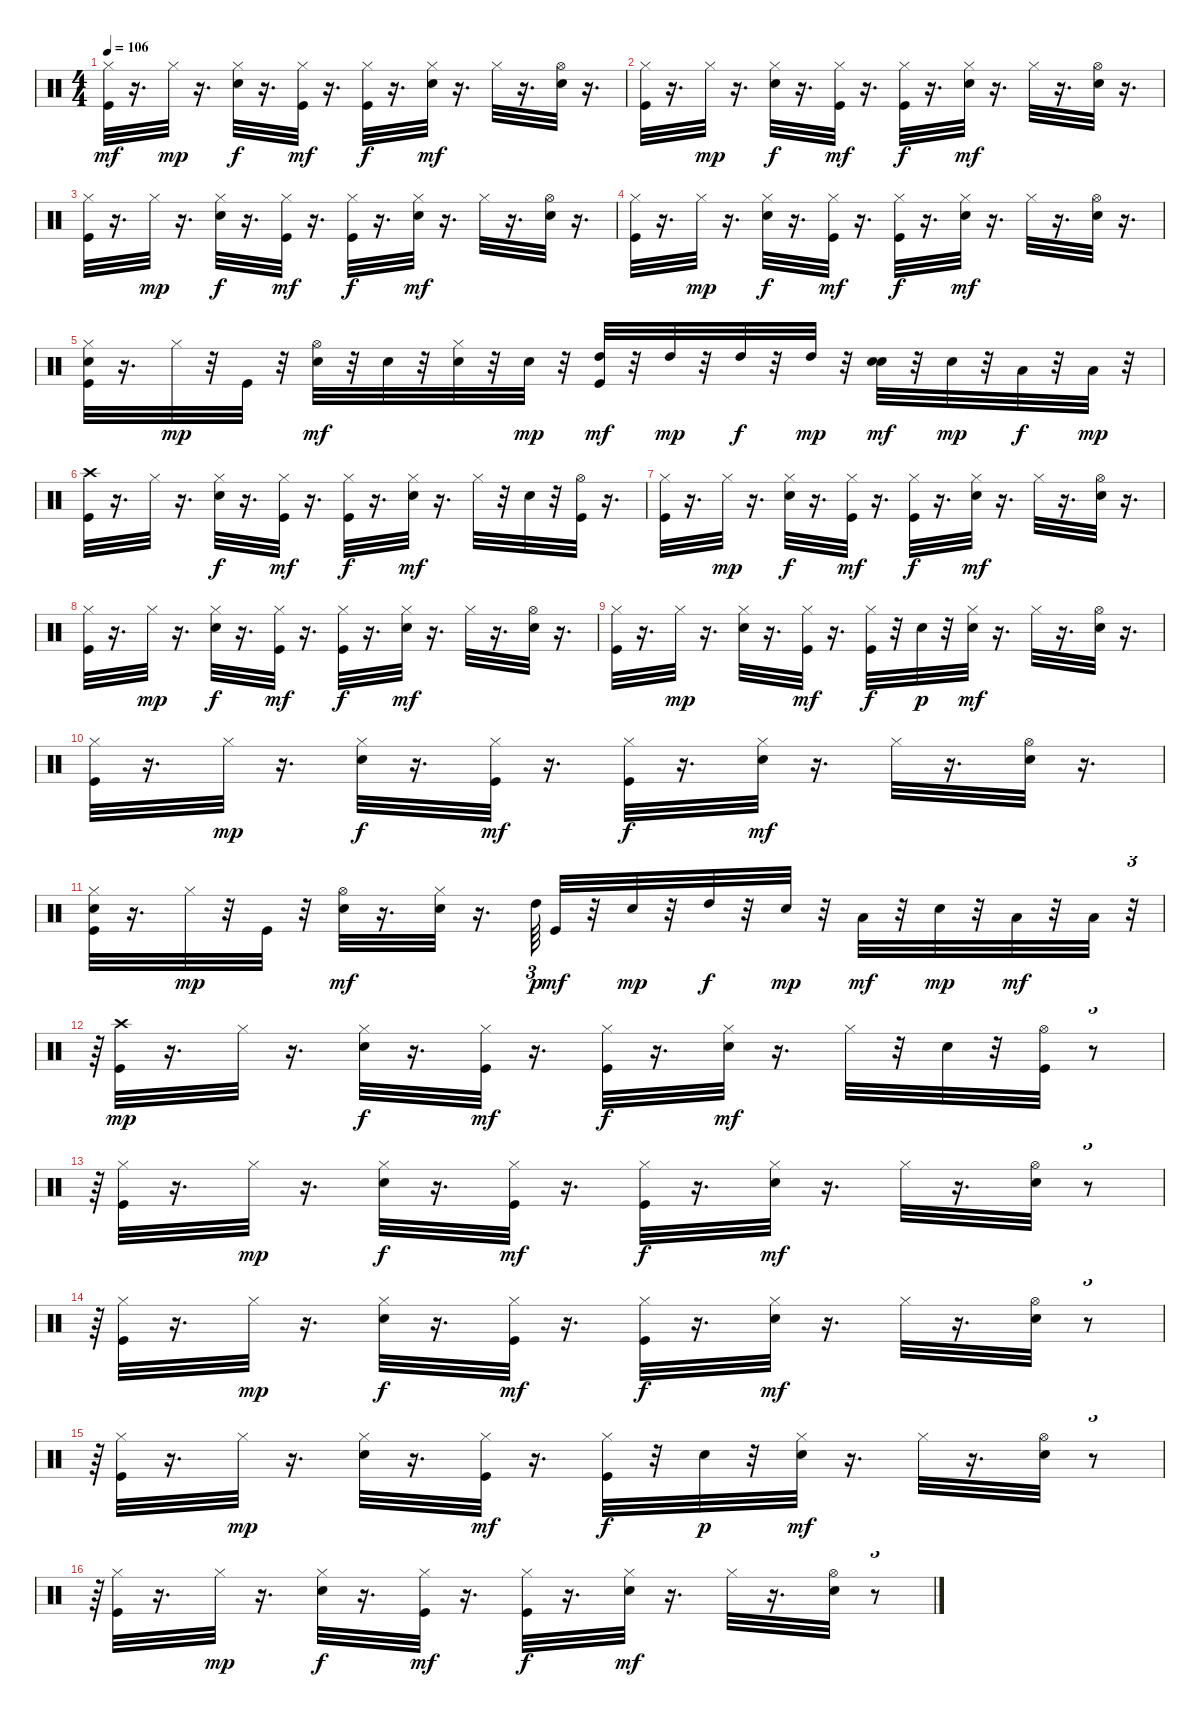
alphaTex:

\track "" {instrument percussion}
\staff {score}
\articulation defaults
\ts (4 4)
\tempo 106
\clef neutral
\ks c
("Kick (hit)" "Hi-Hat (closed)").32{dy mf} r.16{d} "Hi-Hat (closed)".32{dy mp} r.16{d} ("Snare (hit) 2" "Hi-Hat (closed)").32{dy f} r.16{d} ("Kick (hit)" "Hi-Hat (closed)").32{dy mf} r.16{d} ("Kick (hit)" "Hi-Hat (closed)").32{dy f} r.16{d} ("Snare (hit) 2" "Hi-Hat (closed)").32{dy mf} r.16{d} "Hi-Hat (closed)".32 r.16{d} ("Snare (hit) 2" "Hi-Hat (open)").32 r.16{d} |
("Kick (hit)" "Hi-Hat (closed)").32 r.16{d} "Hi-Hat (closed)".32{dy mp} r.16{d} ("Snare (hit) 2" "Hi-Hat (closed)").32{dy f} r.16{d} ("Kick (hit)" "Hi-Hat (closed)").32{dy mf} r.16{d} ("Kick (hit)" "Hi-Hat (closed)").32{dy f} r.16{d} ("Snare (hit) 2" "Hi-Hat (closed)").32{dy mf} r.16{d} "Hi-Hat (closed)".32 r.16{d} ("Snare (hit) 2" "Hi-Hat (open)").32 r.16{d} |
("Kick (hit)" "Hi-Hat (closed)").32 r.16{d} "Hi-Hat (closed)".32{dy mp} r.16{d} ("Snare (hit) 2" "Hi-Hat (closed)").32{dy f} r.16{d} ("Kick (hit)" "Hi-Hat (closed)").32{dy mf} r.16{d} ("Kick (hit)" "Hi-Hat (closed)").32{dy f} r.16{d} ("Snare (hit) 2" "Hi-Hat (closed)").32{dy mf} r.16{d} "Hi-Hat (closed)".32 r.16{d} ("Snare (hit) 2" "Hi-Hat (open)").32 r.16{d} |
("Kick (hit)" "Hi-Hat (closed)").32 r.16{d} "Hi-Hat (closed)".32{dy mp} r.16{d} ("Snare (hit) 2" "Hi-Hat (closed)").32{dy f} r.16{d} ("Kick (hit)" "Hi-Hat (closed)").32{dy mf} r.16{d} ("Kick (hit)" "Hi-Hat (closed)").32{dy f} r.16{d} ("Snare (hit) 2" "Hi-Hat (closed)").32{dy mf} r.16{d} "Hi-Hat (closed)".32 r.16{d} ("Snare (hit) 2" "Hi-Hat (open)").32 r.16{d} |
("Kick (hit)" "Snare (hit) 2" "Hi-Hat (closed)").32 r.16{d} "Hi-Hat (closed)".32{dy mp} r.32 "Kick (hit)".32 r.32 ("Snare (hit) 2" "Hi-Hat (open)").32{dy mf} r.32 "Snare (hit) 2".32 r.32 ("Snare (hit) 2" "Hi-Hat (closed)").32 r.32 "Snare (hit) 2".32{dy mp} r.32 ("Kick (hit)" "High Tom (hit)").32{dy mf} r.32 "High Tom (hit)".32{dy mp} r.32 "High Tom (hit)".32{dy f} r.32 "High Tom (hit)".32{dy mp} r.32 ("Snare (hit) 2" "Snare (hit) 2").32{dy mf} r.32 "Snare (hit) 2".32{dy mp} r.32 "Low Tom (hit)".32{dy f} r.32 "Low Tom (hit)".32{dy mp} r.32 |
("Kick (hit)" "Crash high (hit)").32 r.16{d} "Hi-Hat (closed)".32 r.16{d} ("Snare (hit) 2" "Hi-Hat (closed)").32{dy f} r.16{d} ("Kick (hit)" "Hi-Hat (closed)").32{dy mf} r.16{d} ("Kick (hit)" "Hi-Hat (closed)").32{dy f} r.16{d} ("Snare (hit) 2" "Hi-Hat (closed)").32{dy mf} r.16{d} "Hi-Hat (closed)".32 r.32 "Snare (hit) 2".32 r.32 ("Kick (hit)" "Hi-Hat (open)").32 r.16{d} |
("Kick (hit)" "Hi-Hat (closed)").32 r.16{d} "Hi-Hat (closed)".32{dy mp} r.16{d} ("Snare (hit) 2" "Hi-Hat (closed)").32{dy f} r.16{d} ("Kick (hit)" "Hi-Hat (closed)").32{dy mf} r.16{d} ("Kick (hit)" "Hi-Hat (closed)").32{dy f} r.16{d} ("Snare (hit) 2" "Hi-Hat (closed)").32{dy mf} r.16{d} "Hi-Hat (closed)".32 r.16{d} ("Snare (hit) 2" "Hi-Hat (open)").32 r.16{d} |
("Kick (hit)" "Hi-Hat (closed)").32 r.16{d} "Hi-Hat (closed)".32{dy mp} r.16{d} ("Snare (hit) 2" "Hi-Hat (closed)").32{dy f} r.16{d} ("Kick (hit)" "Hi-Hat (closed)").32{dy mf} r.16{d} ("Kick (hit)" "Hi-Hat (closed)").32{dy f} r.16{d} ("Snare (hit) 2" "Hi-Hat (closed)").32{dy mf} r.16{d} "Hi-Hat (closed)".32 r.16{d} ("Snare (hit) 2" "Hi-Hat (open)").32 r.16{d} |
("Kick (hit)" "Hi-Hat (closed)").32 r.16{d} "Hi-Hat (closed)".32{dy mp} r.16{d} ("Snare (hit) 2" "Hi-Hat (closed)").32 r.16{d} ("Kick (hit)" "Hi-Hat (closed)").32{dy mf} r.16{d} ("Kick (hit)" "Hi-Hat (closed)").32{dy f} r.32 "Snare (hit) 2".32{dy p} r.32 ("Snare (hit) 2" "Hi-Hat (closed)").32{dy mf} r.16{d} "Hi-Hat (closed)".32 r.16{d} ("Snare (hit) 2" "Hi-Hat (open)").32 r.16{d} |
("Kick (hit)" "Hi-Hat (closed)").32 r.16{d} "Hi-Hat (closed)".32{dy mp} r.16{d} ("Snare (hit) 2" "Hi-Hat (closed)").32{dy f} r.16{d} ("Kick (hit)" "Hi-Hat (closed)").32{dy mf} r.16{d} ("Kick (hit)" "Hi-Hat (closed)").32{dy f} r.16{d} ("Snare (hit) 2" "Hi-Hat (closed)").32{dy mf} r.16{d} "Hi-Hat (closed)".32 r.16{d} ("Snare (hit) 2" "Hi-Hat (open)").32 r.16{d} |
("Kick (hit)" "Snare (hit) 2" "Hi-Hat (closed)").32 r.16{d} "Hi-Hat (closed)".32{dy mp} r.32 "Kick (hit)".32 r.32 ("Snare (hit) 2" "Hi-Hat (open)").32{dy mf} r.16{d} ("Snare (hit) 2" "Hi-Hat (closed)").32 r.16{d} "High Tom (hit)".64{tu (3 2) dy p} "Kick (hit)".32{dy mf} r.32 "Snare (hit) 2".32{dy mp} r.32 "High Tom (hit)".32{dy f} r.32 "Snare (hit) 2".32{dy mp} r.32 "Low Tom (hit)".32{dy mf} r.32 "Snare (hit) 2".32{dy mp} r.32 "Low Floor Tom (hit)".32{dy mf} r.32 "Low Floor Tom (hit)".32 r.32{tu (3 2)} |
r.64{tu (3 2)} ("Kick (hit)" "Crash high (hit)").32{dy mp} r.16{d} "Hi-Hat (closed)".32 r.16{d} ("Snare (hit) 2" "Hi-Hat (closed)").32{dy f} r.16{d} ("Kick (hit)" "Hi-Hat (closed)").32{dy mf} r.16{d} ("Kick (hit)" "Hi-Hat (closed)").32{dy f} r.16{d} ("Snare (hit) 2" "Hi-Hat (closed)").32{dy mf} r.16{d} "Hi-Hat (closed)".32 r.32 "Snare (hit) 2".32 r.32 ("Kick (hit)" "Hi-Hat (open)").32 r.8{tu (3 2)} |
r.64{tu (3 2)} ("Kick (hit)" "Hi-Hat (closed)").32 r.16{d} "Hi-Hat (closed)".32{dy mp} r.16{d} ("Snare (hit) 2" "Hi-Hat (closed)").32{dy f} r.16{d} ("Kick (hit)" "Hi-Hat (closed)").32{dy mf} r.16{d} ("Kick (hit)" "Hi-Hat (closed)").32{dy f} r.16{d} ("Snare (hit) 2" "Hi-Hat (closed)").32{dy mf} r.16{d} "Hi-Hat (closed)".32 r.16{d} ("Snare (hit) 2" "Hi-Hat (open)").32 r.8{tu (3 2)} |
r.64{tu (3 2)} ("Kick (hit)" "Hi-Hat (closed)").32 r.16{d} "Hi-Hat (closed)".32{dy mp} r.16{d} ("Snare (hit) 2" "Hi-Hat (closed)").32{dy f} r.16{d} ("Kick (hit)" "Hi-Hat (closed)").32{dy mf} r.16{d} ("Kick (hit)" "Hi-Hat (closed)").32{dy f} r.16{d} ("Snare (hit) 2" "Hi-Hat (closed)").32{dy mf} r.16{d} "Hi-Hat (closed)".32 r.16{d} ("Snare (hit) 2" "Hi-Hat (open)").32 r.8{tu (3 2)} |
r.64{tu (3 2)} ("Kick (hit)" "Hi-Hat (closed)").32 r.16{d} "Hi-Hat (closed)".32{dy mp} r.16{d} ("Snare (hit) 2" "Hi-Hat (closed)").32 r.16{d} ("Kick (hit)" "Hi-Hat (closed)").32{dy mf} r.16{d} ("Kick (hit)" "Hi-Hat (closed)").32{dy f} r.32 "Snare (hit) 2".32{dy p} r.32 ("Snare (hit) 2" "Hi-Hat (closed)").32{dy mf} r.16{d} "Hi-Hat (closed)".32 r.16{d} ("Snare (hit) 2" "Hi-Hat (open)").32 r.8{tu (3 2)} |
r.64{tu (3 2)} ("Kick (hit)" "Hi-Hat (closed)").32 r.16{d} "Hi-Hat (closed)".32{dy mp} r.16{d} ("Snare (hit) 2" "Hi-Hat (closed)").32{dy f} r.16{d} ("Kick (hit)" "Hi-Hat (closed)").32{dy mf} r.16{d} ("Kick (hit)" "Hi-Hat (closed)").32{dy f} r.16{d} ("Snare (hit) 2" "Hi-Hat (closed)").32{dy mf} r.16{d} "Hi-Hat (closed)".32 r.16{d} ("Snare (hit) 2" "Hi-Hat (open)").32 r.8{tu (3 2)}
